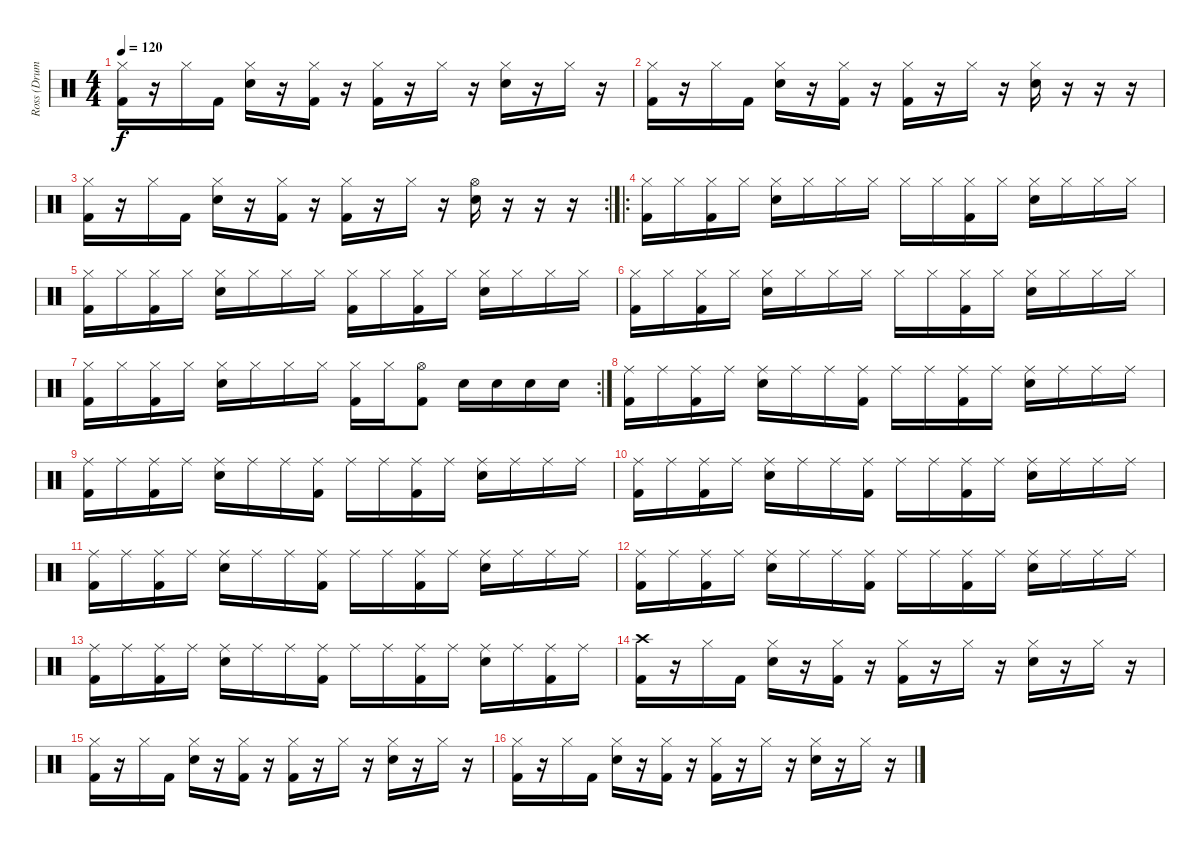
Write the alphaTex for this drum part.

\track ("Ross (Drums)" "Ross (Drum") {instrument percussion}
\staff {score}
\articulation defaults
\ts (4 4)
\tempo 120
\clef neutral
\ks c
("Hi-Hat (closed)" "Kick (hit) 2").16{dy f} r.16 "Hi-Hat (closed)".16 "Kick (hit) 2".16 ("Hi-Hat (closed)" "Electric Snare (hit)").16 r.16 ("Hi-Hat (closed)" "Kick (hit) 2").16 r.16 ("Hi-Hat (closed)" "Kick (hit) 2").16 r.16 "Hi-Hat (closed)".16 r.16 ("Hi-Hat (closed)" "Electric Snare (hit)").16 r.16 "Hi-Hat (closed)".16 r.16 |
("Hi-Hat (closed)" "Kick (hit) 2").16 r.16 "Hi-Hat (closed)".16 "Kick (hit) 2".16 ("Hi-Hat (closed)" "Electric Snare (hit)").16 r.16 ("Hi-Hat (closed)" "Kick (hit) 2").16 r.16 ("Hi-Hat (closed)" "Kick (hit) 2").16 r.16 "Hi-Hat (closed)".16 r.16 ("Hi-Hat (closed)" "Electric Snare (hit)").16 r.16 r.16 r.16 |
\rc 2
("Hi-Hat (closed)" "Kick (hit) 2").16 r.16 "Hi-Hat (closed)".16 "Kick (hit) 2".16 ("Hi-Hat (closed)" "Electric Snare (hit)").16 r.16 ("Hi-Hat (closed)" "Kick (hit) 2").16 r.16 ("Hi-Hat (closed)" "Kick (hit) 2").16 r.16 "Hi-Hat (closed)".16 r.16 ("Hi-Hat (open)" "Electric Snare (hit)").16 r.16 r.16 r.16 |
\ro
("Hi-Hat (closed)" "Kick (hit) 2").16 "Hi-Hat (closed)".16 ("Hi-Hat (closed)" "Kick (hit) 2").16 "Hi-Hat (closed)".16 ("Hi-Hat (closed)" "Electric Snare (hit)").16 "Hi-Hat (closed)".16 "Hi-Hat (closed)".16 "Hi-Hat (closed)".16 "Hi-Hat (closed)".16 "Hi-Hat (closed)".16 ("Hi-Hat (closed)" "Kick (hit) 2").16 "Hi-Hat (closed)".16 ("Hi-Hat (closed)" "Electric Snare (hit)").16 "Hi-Hat (closed)".16 "Hi-Hat (closed)".16 "Hi-Hat (closed)".16 |
("Hi-Hat (closed)" "Kick (hit) 2").16 "Hi-Hat (closed)".16 ("Hi-Hat (closed)" "Kick (hit) 2").16 "Hi-Hat (closed)".16 ("Hi-Hat (closed)" "Electric Snare (hit)").16 "Hi-Hat (closed)".16 "Hi-Hat (closed)".16 "Hi-Hat (closed)".16 ("Hi-Hat (closed)" "Kick (hit) 2").16 "Hi-Hat (closed)".16 ("Hi-Hat (closed)" "Kick (hit) 2").16 "Hi-Hat (closed)".16 ("Hi-Hat (closed)" "Electric Snare (hit)").16 "Hi-Hat (closed)".16 "Hi-Hat (closed)".16 "Hi-Hat (closed)".16 |
("Hi-Hat (closed)" "Kick (hit) 2").16 "Hi-Hat (closed)".16 ("Hi-Hat (closed)" "Kick (hit) 2").16 "Hi-Hat (closed)".16 ("Hi-Hat (closed)" "Electric Snare (hit)").16 "Hi-Hat (closed)".16 "Hi-Hat (closed)".16 "Hi-Hat (closed)".16 "Hi-Hat (closed)".16 "Hi-Hat (closed)".16 ("Hi-Hat (closed)" "Kick (hit) 2").16 "Hi-Hat (closed)".16 ("Hi-Hat (closed)" "Electric Snare (hit)").16 "Hi-Hat (closed)".16 "Hi-Hat (closed)".16 "Hi-Hat (closed)".16 |
\rc 2
("Hi-Hat (closed)" "Kick (hit) 2").16 "Hi-Hat (closed)".16 ("Hi-Hat (closed)" "Kick (hit) 2").16 "Hi-Hat (closed)".16 ("Hi-Hat (closed)" "Electric Snare (hit)").16 "Hi-Hat (closed)".16 "Hi-Hat (closed)".16 "Hi-Hat (closed)".16 ("Hi-Hat (closed)" "Kick (hit) 2").16 "Hi-Hat (closed)".16 ("Hi-Hat (open)" "Kick (hit) 2").8 "Electric Snare (hit)".16 "Electric Snare (hit)".16 "Electric Snare (hit)".16 "Electric Snare (hit)".16 |
("Ride (middle)" "Kick (hit) 2").16 "Ride (middle)".16 ("Ride (middle)" "Kick (hit) 2").16 "Ride (middle)".16 ("Ride (middle)" "Electric Snare (hit)").16 "Ride (middle)".16 "Ride (middle)".16 ("Ride (middle)" "Kick (hit) 2").16 "Ride (middle)".16 "Ride (middle)".16 ("Ride (middle)" "Kick (hit) 2").16 "Ride (middle)".16 ("Ride (middle)" "Electric Snare (hit)").16 "Ride (middle)".16 "Ride (middle)".16 "Ride (middle)".16 |
("Ride (middle)" "Kick (hit) 2").16 "Ride (middle)".16 ("Ride (middle)" "Kick (hit) 2").16 "Ride (middle)".16 ("Ride (middle)" "Electric Snare (hit)").16 "Ride (middle)".16 "Ride (middle)".16 ("Ride (middle)" "Kick (hit) 2").16 "Ride (middle)".16 "Ride (middle)".16 ("Ride (middle)" "Kick (hit) 2").16 "Ride (middle)".16 ("Ride (middle)" "Electric Snare (hit)").16 "Ride (middle)".16 "Ride (middle)".16 "Ride (middle)".16 |
("Ride (middle)" "Kick (hit) 2").16 "Ride (middle)".16 ("Ride (middle)" "Kick (hit) 2").16 "Ride (middle)".16 ("Ride (middle)" "Electric Snare (hit)").16 "Ride (middle)".16 "Ride (middle)".16 ("Ride (middle)" "Kick (hit) 2").16 "Ride (middle)".16 "Ride (middle)".16 ("Ride (middle)" "Kick (hit) 2").16 "Ride (middle)".16 ("Ride (middle)" "Electric Snare (hit)").16 "Ride (middle)".16 "Ride (middle)".16 "Ride (middle)".16 |
("Ride (middle)" "Kick (hit) 2").16 "Ride (middle)".16 ("Ride (middle)" "Kick (hit) 2").16 "Ride (middle)".16 ("Ride (middle)" "Electric Snare (hit)").16 "Ride (middle)".16 "Ride (middle)".16 ("Ride (middle)" "Kick (hit) 2").16 "Ride (middle)".16 "Ride (middle)".16 ("Ride (middle)" "Kick (hit) 2").16 "Ride (middle)".16 ("Ride (middle)" "Electric Snare (hit)").16 "Ride (middle)".16 "Ride (middle)".16 "Ride (middle)".16 |
("Ride (middle)" "Kick (hit) 2").16 "Ride (middle)".16 ("Ride (middle)" "Kick (hit) 2").16 "Ride (middle)".16 ("Ride (middle)" "Electric Snare (hit)").16 "Ride (middle)".16 "Ride (middle)".16 ("Ride (middle)" "Kick (hit) 2").16 "Ride (middle)".16 "Ride (middle)".16 ("Ride (middle)" "Kick (hit) 2").16 "Ride (middle)".16 ("Ride (middle)" "Electric Snare (hit)").16 "Ride (middle)".16 "Ride (middle)".16 "Ride (middle)".16 |
("Ride (middle)" "Kick (hit) 2").16 "Ride (middle)".16 ("Ride (middle)" "Kick (hit) 2").16 "Ride (middle)".16 ("Ride (middle)" "Electric Snare (hit)").16 "Ride (middle)".16 "Ride (middle)".16 ("Ride (middle)" "Kick (hit) 2").16 "Ride (middle)".16 "Ride (middle)".16 ("Ride (middle)" "Kick (hit) 2").16 "Ride (middle)".16 ("Ride (middle)" "Electric Snare (hit)").16 "Ride (middle)".16 ("Ride (middle)" "Kick (hit) 2").16 "Ride (middle)".16 |
("Crash high (hit)" "Kick (hit) 2").16 r.16 "Hi-Hat (closed)".16 "Kick (hit) 2".16 ("Hi-Hat (closed)" "Electric Snare (hit)").16 r.16 ("Hi-Hat (closed)" "Kick (hit) 2").16 r.16 ("Hi-Hat (closed)" "Kick (hit) 2").16 r.16 "Hi-Hat (closed)".16 r.16 ("Hi-Hat (closed)" "Electric Snare (hit)").16 r.16 "Hi-Hat (closed)".16 r.16 |
("Hi-Hat (closed)" "Kick (hit) 2").16 r.16 "Hi-Hat (closed)".16 "Kick (hit) 2".16 ("Hi-Hat (closed)" "Electric Snare (hit)").16 r.16 ("Hi-Hat (closed)" "Kick (hit) 2").16 r.16 ("Hi-Hat (closed)" "Kick (hit) 2").16 r.16 "Hi-Hat (closed)".16 r.16 ("Hi-Hat (closed)" "Electric Snare (hit)").16 r.16 "Hi-Hat (closed)".16 r.16 |
("Hi-Hat (closed)" "Kick (hit) 2").16 r.16 "Hi-Hat (closed)".16 "Kick (hit) 2".16 ("Hi-Hat (closed)" "Electric Snare (hit)").16 r.16 ("Hi-Hat (closed)" "Kick (hit) 2").16 r.16 ("Hi-Hat (closed)" "Kick (hit) 2").16 r.16 "Hi-Hat (closed)".16 r.16 ("Hi-Hat (closed)" "Electric Snare (hit)").16 r.16 "Hi-Hat (closed)".16 r.16
